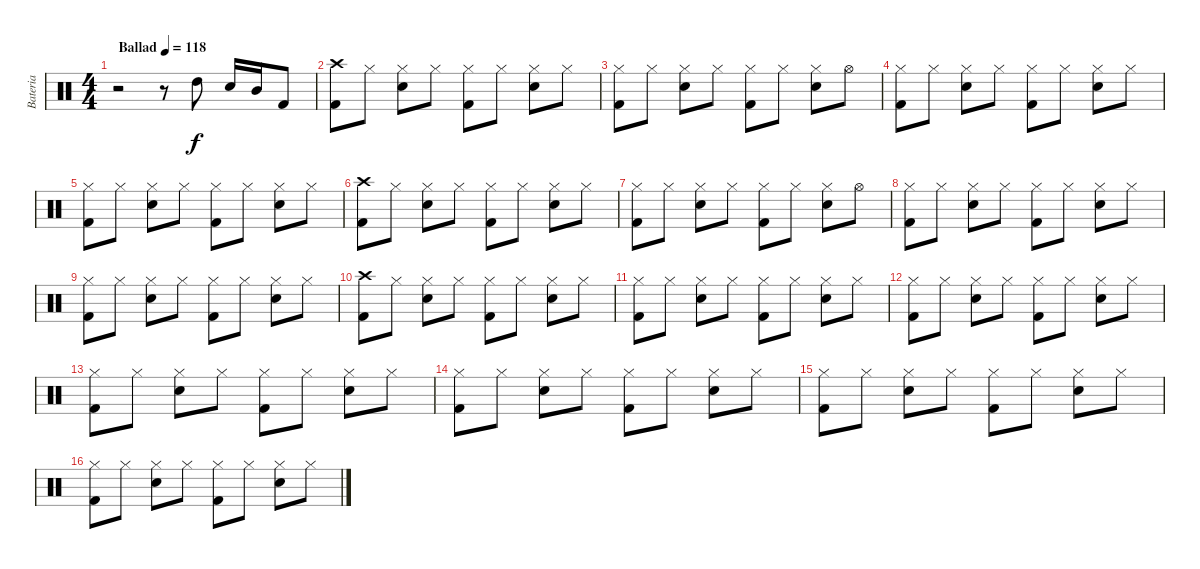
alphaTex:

\track ("Bateria" "Bateria") {instrument percussion}
\staff {score}
\articulation defaults
\ts (4 4)
\tempo (118 "Ballad")
\clef neutral
\ks c
r.2{dy f} r.8 "High Tom (hit)".8 "Electric Snare (hit)".16 "Mid Tom (hit)".16 "Kick (hit) 2".8 |
("Kick (hit) 2" "Crash high (hit)").8 "Hi-Hat (closed)".8 ("Electric Snare (hit)" "Hi-Hat (closed)").8 "Hi-Hat (closed)".8 ("Kick (hit) 2" "Hi-Hat (closed)").8 "Hi-Hat (closed)".8 ("Electric Snare (hit)" "Hi-Hat (closed)").8 "Hi-Hat (closed)".8 |
("Kick (hit) 2" "Hi-Hat (closed)").8 "Hi-Hat (closed)".8 ("Electric Snare (hit)" "Hi-Hat (closed)").8 "Hi-Hat (closed)".8 ("Kick (hit) 2" "Hi-Hat (closed)").8 "Hi-Hat (closed)".8 ("Electric Snare (hit)" "Hi-Hat (closed)").8 "Hi-Hat (open)".8 |
("Kick (hit) 2" "Hi-Hat (closed)").8 "Hi-Hat (closed)".8 ("Electric Snare (hit)" "Hi-Hat (closed)").8 "Hi-Hat (closed)".8 ("Kick (hit) 2" "Hi-Hat (closed)").8 "Hi-Hat (closed)".8 ("Electric Snare (hit)" "Hi-Hat (closed)").8 "Hi-Hat (closed)".8 |
("Kick (hit) 2" "Hi-Hat (closed)").8 "Hi-Hat (closed)".8 ("Electric Snare (hit)" "Hi-Hat (closed)").8 "Hi-Hat (closed)".8 ("Kick (hit) 2" "Hi-Hat (closed)").8 "Hi-Hat (closed)".8 ("Electric Snare (hit)" "Hi-Hat (closed)").8 "Hi-Hat (closed)".8 |
("Kick (hit) 2" "Crash high (hit)").8 "Hi-Hat (closed)".8 ("Electric Snare (hit)" "Hi-Hat (closed)").8 "Hi-Hat (closed)".8 ("Kick (hit) 2" "Hi-Hat (closed)").8 "Hi-Hat (closed)".8 ("Electric Snare (hit)" "Hi-Hat (closed)").8 "Hi-Hat (closed)".8 |
("Kick (hit) 2" "Hi-Hat (closed)").8 "Hi-Hat (closed)".8 ("Electric Snare (hit)" "Hi-Hat (closed)").8 "Hi-Hat (closed)".8 ("Kick (hit) 2" "Hi-Hat (closed)").8 "Hi-Hat (closed)".8 ("Electric Snare (hit)" "Hi-Hat (closed)").8 "Hi-Hat (open)".8 |
("Kick (hit) 2" "Hi-Hat (closed)").8 "Hi-Hat (closed)".8 ("Electric Snare (hit)" "Hi-Hat (closed)").8 "Hi-Hat (closed)".8 ("Kick (hit) 2" "Hi-Hat (closed)").8 "Hi-Hat (closed)".8 ("Electric Snare (hit)" "Hi-Hat (closed)").8 "Hi-Hat (closed)".8 |
("Kick (hit) 2" "Hi-Hat (closed)").8 "Hi-Hat (closed)".8 ("Electric Snare (hit)" "Hi-Hat (closed)").8 "Hi-Hat (closed)".8 ("Kick (hit) 2" "Hi-Hat (closed)").8 "Hi-Hat (closed)".8 ("Electric Snare (hit)" "Hi-Hat (closed)").8 "Hi-Hat (closed)".8 |
("Kick (hit) 2" "Crash high (hit)").8 "Hi-Hat (closed)".8 ("Electric Snare (hit)" "Hi-Hat (closed)").8 "Hi-Hat (closed)".8 ("Kick (hit) 2" "Hi-Hat (closed)").8 "Hi-Hat (closed)".8 ("Electric Snare (hit)" "Hi-Hat (closed)").8 "Hi-Hat (closed)".8 |
("Kick (hit) 2" "Hi-Hat (closed)").8 "Hi-Hat (closed)".8 ("Electric Snare (hit)" "Hi-Hat (closed)").8 "Hi-Hat (closed)".8 ("Kick (hit) 2" "Hi-Hat (closed)").8 "Hi-Hat (closed)".8 ("Electric Snare (hit)" "Hi-Hat (closed)").8 "Hi-Hat (closed)".8 |
("Kick (hit) 2" "Hi-Hat (closed)").8 "Hi-Hat (closed)".8 ("Electric Snare (hit)" "Hi-Hat (closed)").8 "Hi-Hat (closed)".8 ("Kick (hit) 2" "Hi-Hat (closed)").8 "Hi-Hat (closed)".8 ("Electric Snare (hit)" "Hi-Hat (closed)").8 "Hi-Hat (closed)".8 |
("Kick (hit) 2" "Hi-Hat (closed)").8 "Hi-Hat (closed)".8 ("Electric Snare (hit)" "Hi-Hat (closed)").8 "Hi-Hat (closed)".8 ("Kick (hit) 2" "Hi-Hat (closed)").8 "Hi-Hat (closed)".8 ("Electric Snare (hit)" "Hi-Hat (closed)").8 "Hi-Hat (closed)".8 |
("Kick (hit) 2" "Hi-Hat (closed)").8 "Hi-Hat (closed)".8 ("Electric Snare (hit)" "Hi-Hat (closed)").8 "Hi-Hat (closed)".8 ("Kick (hit) 2" "Hi-Hat (closed)").8 "Hi-Hat (closed)".8 ("Electric Snare (hit)" "Hi-Hat (closed)").8 "Hi-Hat (closed)".8 |
("Kick (hit) 2" "Hi-Hat (closed)").8 "Hi-Hat (closed)".8 ("Electric Snare (hit)" "Hi-Hat (closed)").8 "Hi-Hat (closed)".8 ("Kick (hit) 2" "Hi-Hat (closed)").8 "Hi-Hat (closed)".8 ("Electric Snare (hit)" "Hi-Hat (closed)").8 "Hi-Hat (closed)".8 |
("Kick (hit) 2" "Hi-Hat (closed)").8 "Hi-Hat (closed)".8 ("Electric Snare (hit)" "Hi-Hat (closed)").8 "Hi-Hat (closed)".8 ("Kick (hit) 2" "Hi-Hat (closed)").8 "Hi-Hat (closed)".8 ("Electric Snare (hit)" "Hi-Hat (closed)").8 "Hi-Hat (closed)".8
